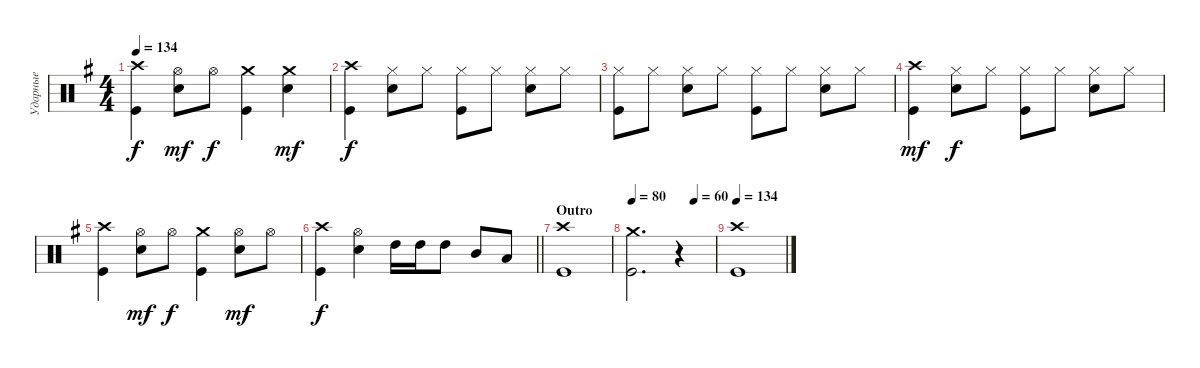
\track ("Ударные" "Ударные") {instrument percussion}
\staff {score}
\articulation defaults
\ts (4 4)
\tempo 134
\clef neutral
\ks eminor
("Crash high (hit)" "Kick (hit)").4{dy f} ("Hi-Hat (open)" "Snare (hit) 2").8{dy mf} "Hi-Hat (open)".8{dy f} ("Crash medium (hit)" "Kick (hit)").4 ("Crash medium (hit)" "Snare (hit) 2").4{dy mf} |
("Crash high (hit)" "Kick (hit)").4{dy f} ("Hi-Hat (closed)" "Snare (hit) 2").8 "Hi-Hat (closed)".8 ("Hi-Hat (closed)" "Kick (hit)").8 "Hi-Hat (closed)".8 ("Hi-Hat (closed)" "Snare (hit) 2").8 "Hi-Hat (closed)".8 |
("Hi-Hat (closed)" "Kick (hit)").8 "Hi-Hat (closed)".8 ("Hi-Hat (closed)" "Snare (hit) 2").8 "Hi-Hat (closed)".8 ("Hi-Hat (closed)" "Kick (hit)").8 "Hi-Hat (closed)".8 ("Hi-Hat (closed)" "Snare (hit) 2").8 "Hi-Hat (closed)".8 |
("Crash high (hit)" "Kick (hit)").4{dy mf} ("Hi-Hat (closed)" "Snare (hit) 2").8{dy f} "Hi-Hat (closed)".8 ("Hi-Hat (closed)" "Kick (hit)").8 "Hi-Hat (closed)".8 ("Hi-Hat (closed)" "Snare (hit) 2").8 "Hi-Hat (closed)".8 |
("Crash high (hit)" "Kick (hit)").4 ("Hi-Hat (open)" "Snare (hit) 2").8{dy mf} "Hi-Hat (open)".8{dy f} ("Crash medium (hit)" "Kick (hit)").4 ("Snare (hit) 2" "Hi-Hat (open)").8{dy mf} "Hi-Hat (open)".8 |
\barLineRight lightlight
("Kick (hit)" "Crash high (hit)").4{dy f} ("Hi-Hat (open)" "Snare (hit) 2").4 "High Tom (hit)".16 "High Tom (hit)".16 "High Tom (hit)".8 "Mid Tom (hit)".8 "Low Tom (hit)".8 |
\section ("" "Outro")
("Kick (hit)" "Crash high (hit)").1 |
\tempo 80
\tempo (60 0.75)
("Kick (hit)" "Crash medium (hit)").2{d} r.4 |
\tempo 134
("Kick (hit)" "Crash high (hit)").1
